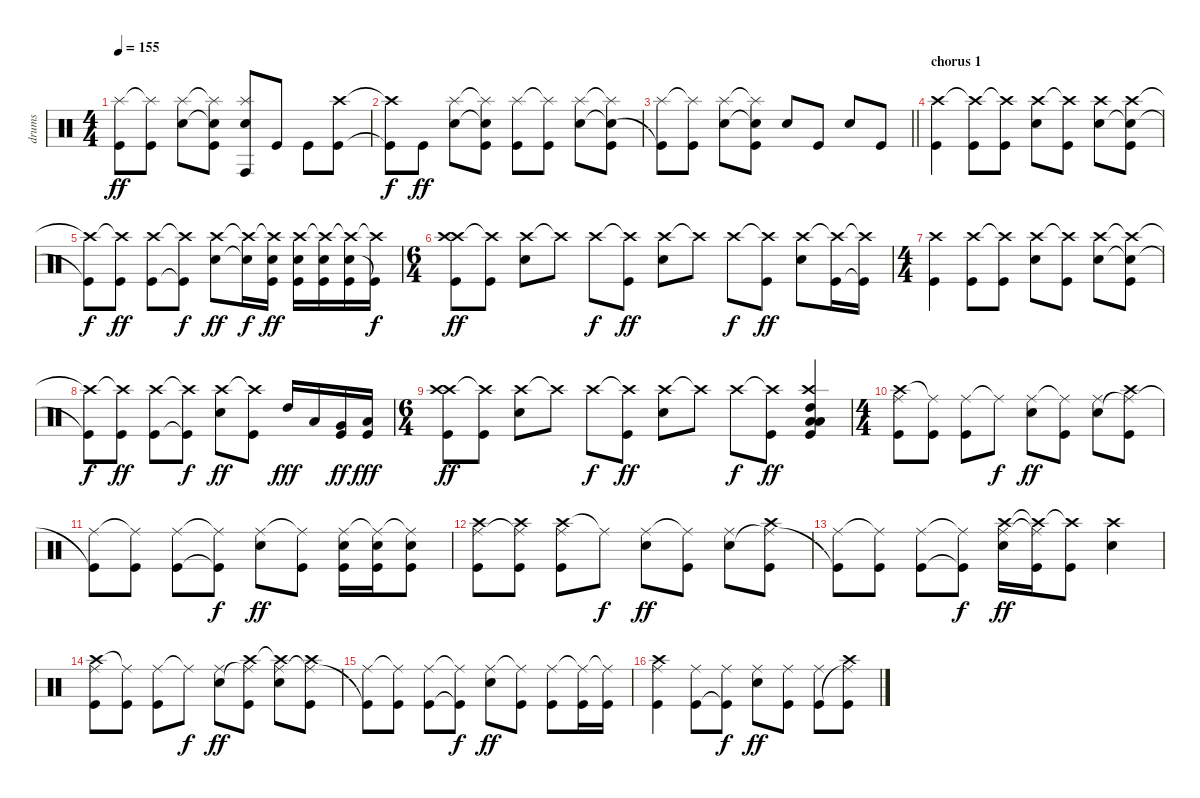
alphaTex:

\track ("drums" "drums") {instrument percussion}
\staff {score}
\articulation defaults
\ts (4 4)
\tempo 155
\clef neutral
\ks c
("Splash (hit)" "Kick (hit)").8{dy ff} ("Splash (hit)"{t} "Kick (hit)").8 ("Splash (hit)" "Electric Snare (hit)").8 ("Splash (hit)"{t} "Electric Snare (hit)"{t} "Kick (hit)").8 ("Splash (hit)" "Conga high (hit)" "Electric Snare (hit)").8 "Kick (hit)".8 "Kick (hit)".8 ("Crash high (hit)" "Kick (hit)").8 |
("Crash high (hit)"{t} "Kick (hit)"{t}).8{dy f} "Kick (hit)".8{dy ff} ("Splash (hit)" "Electric Snare (hit)").8 ("Splash (hit)"{t} "Electric Snare (hit)"{t} "Kick (hit)").8 ("Splash (hit)" "Kick (hit)").8 ("Splash (hit)"{t} "Kick (hit)").8 ("Splash (hit)" "Electric Snare (hit)").8 ("Splash (hit)"{t} "Electric Snare (hit)"{t} "Kick (hit)").8 |
\barLineRight lightlight
("Splash (hit)" "Kick (hit)"{t}).8 ("Splash (hit)"{t} "Kick (hit)").8 ("Splash (hit)" "Electric Snare (hit)").8 ("Splash (hit)"{t} "Electric Snare (hit)"{t} "Kick (hit)").8 "Electric Snare (hit)".8 "Kick (hit)".8 "Electric Snare (hit)".8 "Kick (hit)".8 |
\section ("" "chorus 1")
("Crash high (hit)" "Kick (hit)").4 ("Crash high (hit)"{t} "Kick (hit)").8 ("Crash high (hit)"{t} "Kick (hit)").8 ("Crash high (hit)" "Electric Snare (hit)").8 ("Crash high (hit)"{t} "Kick (hit)").8 ("Crash high (hit)" "Electric Snare (hit)").8 ("Crash high (hit)" "Electric Snare (hit)"{t} "Kick (hit)").8 |
("Crash high (hit)"{t} "Kick (hit)"{t}).8{dy f} ("Crash high (hit)"{t} "Kick (hit)").8{dy ff} ("Crash high (hit)" "Kick (hit)").8 ("Crash high (hit)"{t} "Kick (hit)"{t}).8{dy f} ("Crash high (hit)" "Electric Snare (hit)").8{dy ff} ("Crash high (hit)"{t} "Electric Snare (hit)"{t}).16{dy f} ("Crash high (hit)"{t} "Electric Snare (hit)" "Kick (hit)").16{dy ff} ("Crash high (hit)" "Electric Snare (hit)" "Kick (hit)").16 ("Crash high (hit)"{t} "Electric Snare (hit)" "Kick (hit)").16 ("Crash high (hit)"{t} "Electric Snare (hit)" "Kick (hit)").16 ("Crash high (hit)"{t} "Kick (hit)"{t}).16{dy f} |
\ts (6 4)
("Crash high (hit)" "Crash high (hit)" "Kick (hit)").8{dy ff} ("Crash high (hit)"{t} "Kick (hit)").8 ("Crash high (hit)" "Electric Snare (hit)").8 "Crash high (hit)"{t}.8 "Crash high (hit)".8{dy f} ("Crash high (hit)"{t} "Kick (hit)").8{dy ff} ("Crash high (hit)" "Electric Snare (hit)").8 "Crash high (hit)"{t}.8 "Crash high (hit)".8{dy f} ("Crash high (hit)"{t} "Kick (hit)").8{dy ff} ("Crash high (hit)" "Electric Snare (hit)").8 ("Crash high (hit)"{t} "Kick (hit)").16 ("Crash high (hit)"{t} "Kick (hit)"{t}).16 |
\ts (4 4)
("Crash high (hit)" "Kick (hit)").4 ("Crash high (hit)" "Kick (hit)").8 ("Crash high (hit)"{t} "Kick (hit)").8 ("Crash high (hit)" "Electric Snare (hit)").8 ("Crash high (hit)"{t} "Kick (hit)").8 ("Crash high (hit)" "Electric Snare (hit)").8 ("Crash high (hit)"{t} "Electric Snare (hit)"{t} "Kick (hit)").8 |
("Crash high (hit)"{t} "Kick (hit)"{t}).8{dy f} ("Crash high (hit)"{t} "Kick (hit)").8{dy ff} ("Crash high (hit)" "Kick (hit)").8 ("Crash high (hit)"{t} "Kick (hit)"{t}).8{dy f} ("Crash high (hit)" "Electric Snare (hit)").8{dy ff} ("Crash high (hit)"{t} "Kick (hit)").8 "High Tom (hit)".16{dy fff} "Low Tom (hit)".16 ("Very Low Tom (hit)" "Kick (hit)").16{dy ff} ("Low Floor Tom (hit)" "Kick (hit)").16{dy fff} |
\ts (6 4)
("Crash high (hit)" "Crash high (hit)" "Kick (hit)").8{dy ff} ("Crash high (hit)"{t} "Kick (hit)").8 ("Crash high (hit)" "Electric Snare (hit)").8 "Crash high (hit)"{t}.8 "Crash high (hit)".8{dy f} ("Crash high (hit)"{t} "Kick (hit)").8{dy ff} ("Crash high (hit)" "Electric Snare (hit)").8 "Crash high (hit)"{t}.8 "Crash high (hit)".8{dy f} ("Crash high (hit)"{t} "Kick (hit)").8{dy ff} ("Crash high (hit)" "High Tom (hit)" "Low Tom (hit)" "Low Floor Tom (hit)" "Kick (hit)").4 |
\ts (4 4)
("Crash high (hit)" "Ride (middle)" "Kick (hit)").8 ("Ride (middle)"{t} "Kick (hit)").8 ("Ride (middle)" "Kick (hit)").8 "Ride (middle)"{t}.8{dy f} ("Ride (middle)" "Electric Snare (hit)").8{dy ff} ("Ride (middle)"{t} "Kick (hit)").8 ("Ride (middle)" "Electric Snare (hit)").8 ("Crash high (hit)" "Ride (middle)"{t} "Kick (hit)").8 |
("Ride (middle)" "Kick (hit)"{t}).8 ("Ride (middle)"{t} "Kick (hit)").8 ("Ride (middle)" "Kick (hit)").8 ("Ride (middle)"{t} "Kick (hit)"{t}).8{dy f} ("Ride (middle)" "Electric Snare (hit)").8{dy ff} ("Ride (middle)"{t} "Kick (hit)").8 ("Ride (middle)" "Electric Snare (hit)" "Kick (hit)").16 ("Ride (middle)"{t} "Electric Snare (hit)" "Kick (hit)").16 ("Ride (middle)"{t} "Electric Snare (hit)" "Kick (hit)").8 |
("Crash high (hit)" "Ride (middle)" "Kick (hit)").8 ("Crash high (hit)" "Ride (middle)"{t} "Kick (hit)").8 ("Crash high (hit)" "Ride (middle)" "Kick (hit)").8 "Ride (middle)"{t}.8{dy f} ("Ride (middle)" "Electric Snare (hit)").8{dy ff} ("Ride (middle)"{t} "Kick (hit)").8 ("Ride (middle)" "Electric Snare (hit)").8 ("Crash high (hit)" "Ride (middle)"{t} "Kick (hit)").8 |
("Ride (middle)" "Kick (hit)"{t}).8 ("Ride (middle)"{t} "Kick (hit)").8 ("Ride (middle)" "Kick (hit)").8 ("Ride (middle)"{t} "Kick (hit)"{t}).8{dy f} ("Crash high (hit)" "Ride (middle)" "Electric Snare (hit)").16{dy ff} ("Crash high (hit)"{t} "Ride (middle)"{t} "Kick (hit)").16 ("Crash high (hit)"{t} "Kick (hit)").8 ("Crash high (hit)" "Electric Snare (hit)").4 |
("Crash high (hit)" "Ride (middle)" "Kick (hit)").8 ("Ride (middle)"{t} "Kick (hit)").8 ("Ride (middle)" "Kick (hit)").8 "Ride (middle)"{t}.8{dy f} ("Ride (middle)" "Electric Snare (hit)").8{dy ff} ("Crash high (hit)" "Ride (middle)"{t} "Kick (hit)").8 ("Crash high (hit)"{t} "Ride (middle)" "Electric Snare (hit)").8 ("Crash high (hit)" "Ride (middle)"{t} "Kick (hit)").8 |
("Ride (middle)" "Kick (hit)"{t}).8 ("Ride (middle)"{t} "Kick (hit)").8 ("Ride (middle)" "Kick (hit)").8 ("Ride (middle)"{t} "Kick (hit)"{t}).8{dy f} ("Ride (middle)" "Electric Snare (hit)").8{dy ff} ("Ride (middle)"{t} "Kick (hit)").8 ("Ride (middle)" "Kick (hit)").8 ("Ride (middle)"{t} "Kick (hit)").16 ("Ride (middle)"{t} "Kick (hit)").16 |
("Crash high (hit)" "Ride (middle)" "Kick (hit)").4 ("Ride (middle)" "Kick (hit)").8 ("Ride (middle)" "Kick (hit)"{t}).8{dy f} ("Ride (middle)" "Electric Snare (hit)").8{dy ff} ("Ride (middle)" "Kick (hit)").8 ("Ride (middle)" "Kick (hit)").8 ("Crash high (hit)" "Ride (middle)"{t} "Kick (hit)").8
